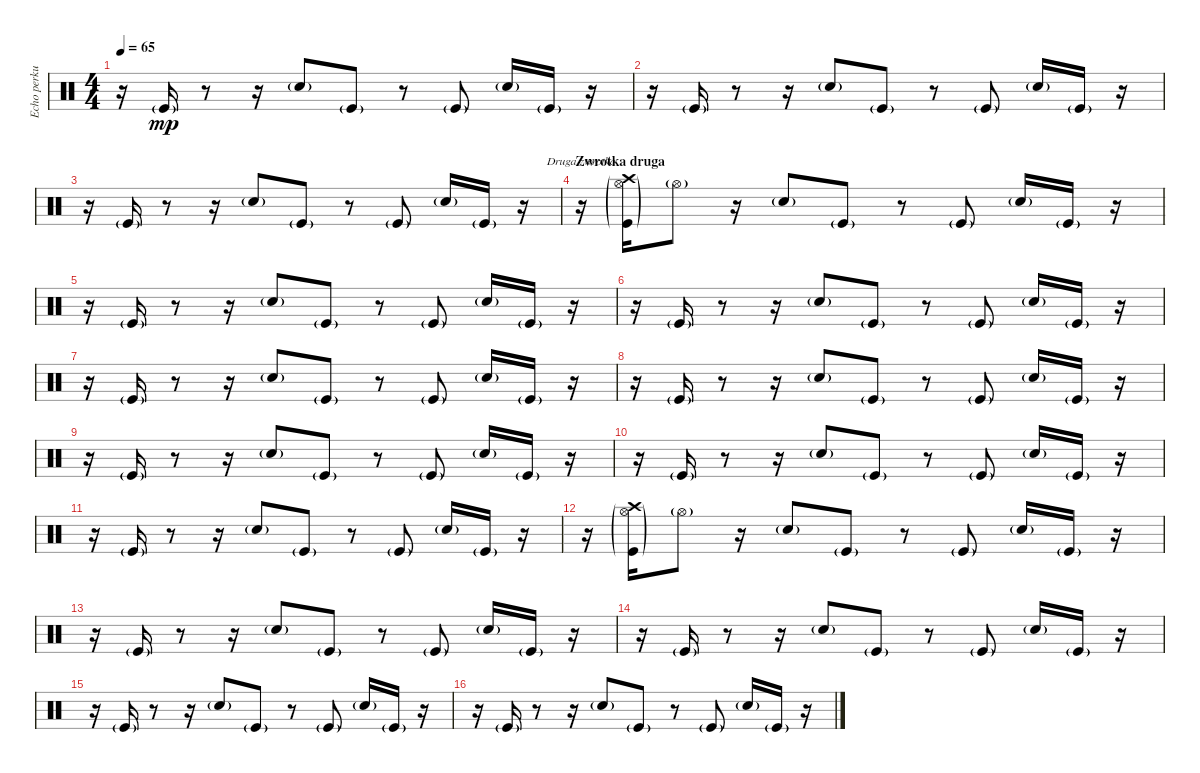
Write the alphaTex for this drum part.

\track ("Echo perkusji 1" "Echo perku") {instrument percussion}
\staff {score}
\articulation defaults
\chord ("Druga zwrotka")
\ts (4 4)
\tempo 65
\clef neutral
\ks c
r.16{dy mp} "Kick (hit)"{g}.16 r.8 r.16 "Snare (hit) 2"{g}.8 "Kick (hit)"{g}.8 r.8 "Kick (hit)"{g}.8 "Snare (hit) 2"{g}.16 "Kick (hit)"{g}.16 r.16 |
r.16 "Kick (hit)"{g}.16 r.8 r.16 "Snare (hit) 2"{g}.8 "Kick (hit)"{g}.8 r.8 "Kick (hit)"{g}.8 "Snare (hit) 2"{g}.16 "Kick (hit)"{g}.16 r.16 |
r.16 "Kick (hit)"{g}.16 r.8 r.16 "Snare (hit) 2"{g}.8 "Kick (hit)"{g}.8 r.8 "Kick (hit)"{g}.8 "Snare (hit) 2"{g}.16 "Kick (hit)"{g}.16 r.16 |
\section ("" "Zwrotka druga")
r.16{ch "Druga zwrotka"} ("Kick (hit)"{g} "Hi-Hat (open)"{g} "Crash high (hit)"{g}).16 "Hi-Hat (open)"{g}.8 r.16 "Snare (hit) 2"{g}.8 "Kick (hit)"{g}.8 r.8 "Kick (hit)"{g}.8 "Snare (hit) 2"{g}.16 "Kick (hit)"{g}.16 r.16 |
r.16 "Kick (hit)"{g}.16 r.8 r.16 "Snare (hit) 2"{g}.8 "Kick (hit)"{g}.8 r.8 "Kick (hit)"{g}.8 "Snare (hit) 2"{g}.16 "Kick (hit)"{g}.16 r.16 |
r.16 "Kick (hit)"{g}.16 r.8 r.16 "Snare (hit) 2"{g}.8 "Kick (hit)"{g}.8 r.8 "Kick (hit)"{g}.8 "Snare (hit) 2"{g}.16 "Kick (hit)"{g}.16 r.16 |
r.16 "Kick (hit)"{g}.16 r.8 r.16 "Snare (hit) 2"{g}.8 "Kick (hit)"{g}.8 r.8 "Kick (hit)"{g}.8 "Snare (hit) 2"{g}.16 "Kick (hit)"{g}.16 r.16 |
r.16 "Kick (hit)"{g}.16 r.8 r.16 "Snare (hit) 2"{g}.8 "Kick (hit)"{g}.8 r.8 "Kick (hit)"{g}.8 "Snare (hit) 2"{g}.16 "Kick (hit)"{g}.16 r.16 |
r.16 "Kick (hit)"{g}.16 r.8 r.16 "Snare (hit) 2"{g}.8 "Kick (hit)"{g}.8 r.8 "Kick (hit)"{g}.8 "Snare (hit) 2"{g}.16 "Kick (hit)"{g}.16 r.16 |
r.16 "Kick (hit)"{g}.16 r.8 r.16 "Snare (hit) 2"{g}.8 "Kick (hit)"{g}.8 r.8 "Kick (hit)"{g}.8 "Snare (hit) 2"{g}.16 "Kick (hit)"{g}.16 r.16 |
r.16 "Kick (hit)"{g}.16 r.8 r.16 "Snare (hit) 2"{g}.8 "Kick (hit)"{g}.8 r.8 "Kick (hit)"{g}.8 "Snare (hit) 2"{g}.16 "Kick (hit)"{g}.16 r.16 |
r.16 ("Kick (hit)"{g} "Hi-Hat (open)"{g} "Crash high (hit)"{g}).16 "Hi-Hat (open)"{g}.8 r.16 "Snare (hit) 2"{g}.8 "Kick (hit)"{g}.8 r.8 "Kick (hit)"{g}.8 "Snare (hit) 2"{g}.16 "Kick (hit)"{g}.16 r.16 |
r.16 "Kick (hit)"{g}.16 r.8 r.16 "Snare (hit) 2"{g}.8 "Kick (hit)"{g}.8 r.8 "Kick (hit)"{g}.8 "Snare (hit) 2"{g}.16 "Kick (hit)"{g}.16 r.16 |
r.16 "Kick (hit)"{g}.16 r.8 r.16 "Snare (hit) 2"{g}.8 "Kick (hit)"{g}.8 r.8 "Kick (hit)"{g}.8 "Snare (hit) 2"{g}.16 "Kick (hit)"{g}.16 r.16 |
r.16 "Kick (hit)"{g}.16 r.8 r.16 "Snare (hit) 2"{g}.8 "Kick (hit)"{g}.8 r.8 "Kick (hit)"{g}.8 "Snare (hit) 2"{g}.16 "Kick (hit)"{g}.16 r.16 |
r.16 "Kick (hit)"{g}.16 r.8 r.16 "Snare (hit) 2"{g}.8 "Kick (hit)"{g}.8 r.8 "Kick (hit)"{g}.8 "Snare (hit) 2"{g}.16 "Kick (hit)"{g}.16 r.16
